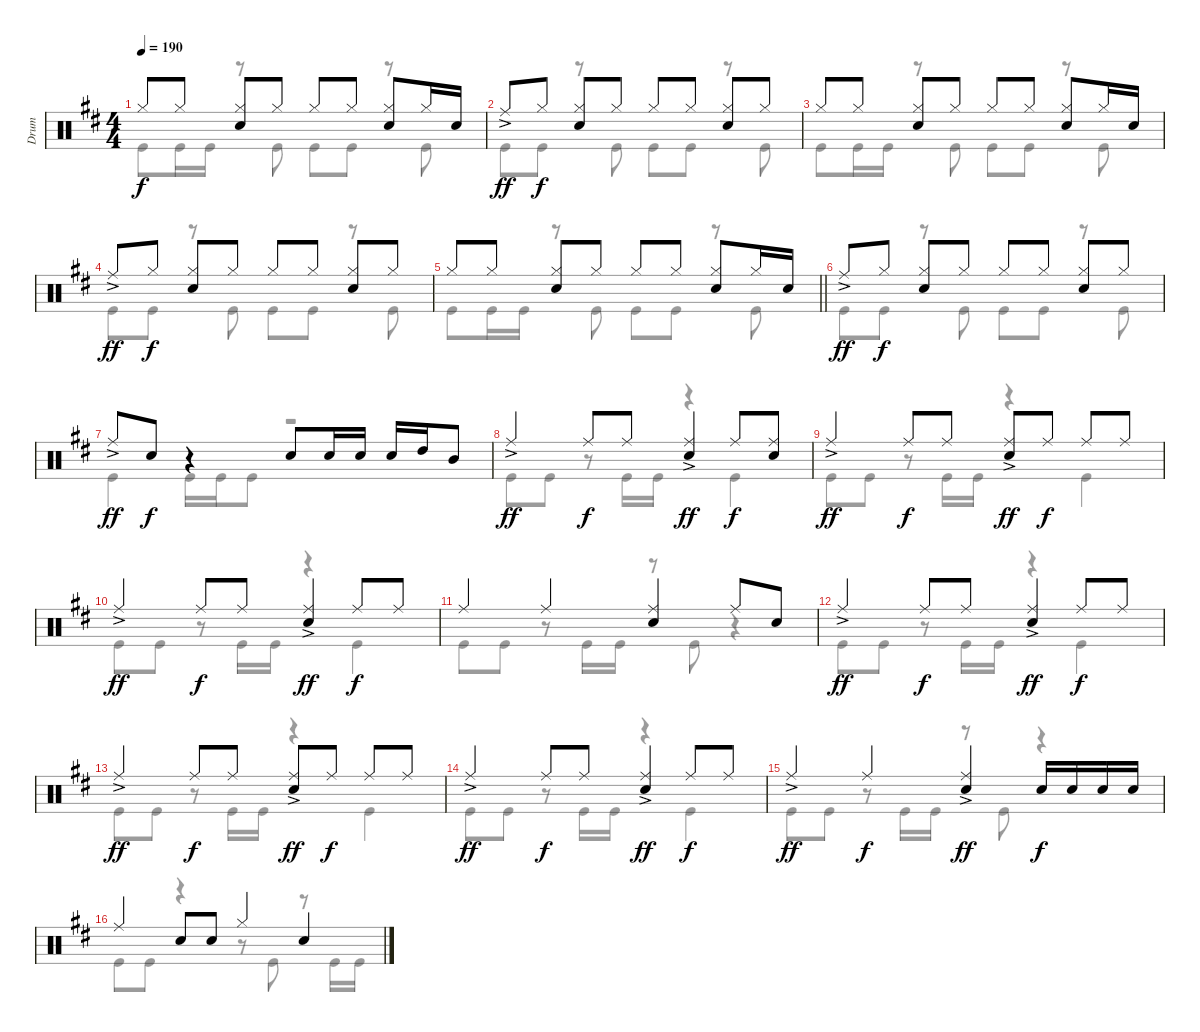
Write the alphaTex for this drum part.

\track ("Drum" "Drum") {instrument percussion}
\staff {score}
\articulation defaults
\voice
\ts (4 4)
\tempo 190
\clef neutral
\ks d "Hi-Hat (closed)".8{dy f} "Hi-Hat (closed)".8
("Hi-Hat (closed)" "Snare (hit) 2").8 "Hi-Hat (closed)".8 "Hi-Hat (closed)".8 "Hi-Hat (closed)".8 ("Hi-Hat (closed)" "Snare (hit) 2").8 "Hi-Hat (closed)".16 "Snare (hit) 2".16 |
"Ride (middle)"{ac}.8{dy ff} "Hi-Hat (closed)".8{dy f} ("Hi-Hat (closed)" "Snare (hit) 2").8 "Hi-Hat (closed)".8 "Hi-Hat (closed)".8 "Hi-Hat (closed)".8 ("Hi-Hat (closed)" "Snare (hit) 2").8 "Hi-Hat (closed)".8 |
"Hi-Hat (closed)".8 "Hi-Hat (closed)".8 ("Hi-Hat (closed)" "Snare (hit) 2").8 "Hi-Hat (closed)".8 "Hi-Hat (closed)".8 "Hi-Hat (closed)".8 ("Hi-Hat (closed)" "Snare (hit) 2").8 "Hi-Hat (closed)".16 "Snare (hit) 2".16 |
"Ride (middle)"{ac}.8{dy ff} "Hi-Hat (closed)".8{dy f} ("Hi-Hat (closed)" "Snare (hit) 2").8 "Hi-Hat (closed)".8 "Hi-Hat (closed)".8 "Hi-Hat (closed)".8 ("Hi-Hat (closed)" "Snare (hit) 2").8 "Hi-Hat (closed)".8 |
\barLineRight lightlight "Hi-Hat (closed)".8 "Hi-Hat (closed)".8
("Hi-Hat (closed)" "Snare (hit) 2").8 "Hi-Hat (closed)".8 "Hi-Hat (closed)".8 "Hi-Hat (closed)".8 ("Hi-Hat (closed)" "Snare (hit) 2").8 "Hi-Hat (closed)".16 "Snare (hit) 2".16 |
"Ride (middle)"{ac}.8{dy ff} "Hi-Hat (closed)".8{dy f} ("Hi-Hat (closed)" "Snare (hit) 2").8 "Hi-Hat (closed)".8 "Hi-Hat (closed)".8 "Hi-Hat (closed)".8 ("Hi-Hat (closed)" "Snare (hit) 2").8 "Hi-Hat (closed)".8 |
"Ride (middle)"{ac}.8{dy ff} "Snare (hit) 2".8{dy f} r.4 "Snare (hit) 2".8 "Snare (hit) 2".16 "Snare (hit) 2".16 "Snare (hit) 2".16 "High Tom (hit)".16 "Mid Tom (hit)".8 |
"Ride (middle)"{ac}.4{dy ff} "Ride (middle)".8{dy f} "Ride (middle)".8 ("Ride (middle)"{ac} "Snare (hit) 2").4{dy ff} "Ride (middle)".8{dy f} ("Ride (middle)" "Snare (hit) 2").8 |
"Ride (middle)"{ac}.4{dy ff} "Ride (middle)".8{dy f} "Ride (middle)".8 ("Ride (middle)" "Snare (hit) 2"{ac}).8{dy ff} "Ride (middle)".8{dy f} "Ride (middle)".8 "Ride (middle)".8 |
"Ride (middle)"{ac}.4{dy ff} "Ride (middle)".8{dy f} "Ride (middle)".8 ("Ride (middle)" "Snare (hit) 2"{ac}).4{dy ff} "Ride (middle)".8{dy f} "Ride (middle)".8 |
"Ride (middle)".4 "Ride (middle)".4 ("Ride (middle)" "Snare (hit) 2").4 "Ride (middle)".8 "Snare (hit) 2".8 |
"Ride (middle)"{ac}.4{dy ff} "Ride (middle)".8{dy f} "Ride (middle)".8 ("Ride (middle)" "Snare (hit) 2"{ac}).4{dy ff} "Ride (middle)".8{dy f} "Ride (middle)".8 |
"Ride (middle)"{ac}.4{dy ff} "Ride (middle)".8{dy f} "Ride (middle)".8 ("Ride (middle)" "Snare (hit) 2"{ac}).8{dy ff} "Ride (middle)".8{dy f} "Ride (middle)".8 "Ride (middle)".8 |
"Ride (middle)"{ac}.4{dy ff} "Ride (middle)".8{dy f} "Ride (middle)".8 ("Ride (middle)" "Snare (hit) 2"{ac}).4{dy ff} "Ride (middle)".8{dy f} "Ride (middle)".8 |
"Ride (middle)"{ac}.4{dy ff} "Ride (middle)".4{dy f} ("Ride (middle)"{ac} "Snare (hit) 2").4{dy ff} "Snare (hit) 2".16{dy f} "Snare (hit) 2".16 "Snare (hit) 2".16 "Snare (hit) 2".16 |
"Ride (middle)".4 "Snare (hit) 2".8 "Snare (hit) 2".8 "Hi-Hat (closed)".4 "Snare (hit) 2".4
\voice
\clef neutral
\ottava regular
\simile none
\ks d "Kick (hit)".8{dy f} "Kick (hit)".16 "Kick (hit)".16
r.8 "Kick (hit)".8 "Kick (hit)".8 "Kick (hit)".8 r.8 "Kick (hit)".8 |
"Kick (hit)".8 "Kick (hit)".8 r.8 "Kick (hit)".8 "Kick (hit)".8 "Kick (hit)".8 r.8 "Kick (hit)".8 |
"Kick (hit)".8 "Kick (hit)".16 "Kick (hit)".16 r.8 "Kick (hit)".8 "Kick (hit)".8 "Kick (hit)".8 r.8 "Kick (hit)".8 |
"Kick (hit)".8 "Kick (hit)".8 r.8 "Kick (hit)".8 "Kick (hit)".8 "Kick (hit)".8 r.8 "Kick (hit)".8 |
\barLineRight lightlight "Kick (hit)".8 "Kick (hit)".16 "Kick (hit)".16
r.8 "Kick (hit)".8 "Kick (hit)".8 "Kick (hit)".8 r.8 "Kick (hit)".8 |
"Kick (hit)".8 "Kick (hit)".8 r.8 "Kick (hit)".8 "Kick (hit)".8 "Kick (hit)".8 r.8 "Kick (hit)".8 |
"Kick (hit)".4 "Kick (hit)".16 "Kick (hit)".16 "Kick (hit)".8 r.2 |
"Kick (hit)".8 "Kick (hit)".8 r.8 "Kick (hit)".16 "Kick (hit)".16 r.4 "Kick (hit)".4 |
"Kick (hit)".8 "Kick (hit)".8 r.8 "Kick (hit)".16 "Kick (hit)".16 r.4 "Kick (hit)".4 |
"Kick (hit)".8 "Kick (hit)".8 r.8 "Kick (hit)".16 "Kick (hit)".16 r.4 "Kick (hit)".4 |
"Kick (hit)".8 "Kick (hit)".8 r.8 "Kick (hit)".16 "Kick (hit)".16 r.8 "Kick (hit)".8 r.4 |
"Kick (hit)".8 "Kick (hit)".8 r.8 "Kick (hit)".16 "Kick (hit)".16 r.4 "Kick (hit)".4 |
"Kick (hit)".8 "Kick (hit)".8 r.8 "Kick (hit)".16 "Kick (hit)".16 r.4 "Kick (hit)".4 |
"Kick (hit)".8 "Kick (hit)".8 r.8 "Kick (hit)".16 "Kick (hit)".16 r.4 "Kick (hit)".4 |
"Kick (hit)".8 "Kick (hit)".8 r.8 "Kick (hit)".16 "Kick (hit)".16 r.8 "Kick (hit)".8 r.4 |
"Kick (hit)".8 "Kick (hit)".8 r.4 r.8 "Kick (hit)".8 r.8 "Kick (hit)".16 "Kick (hit)".16
